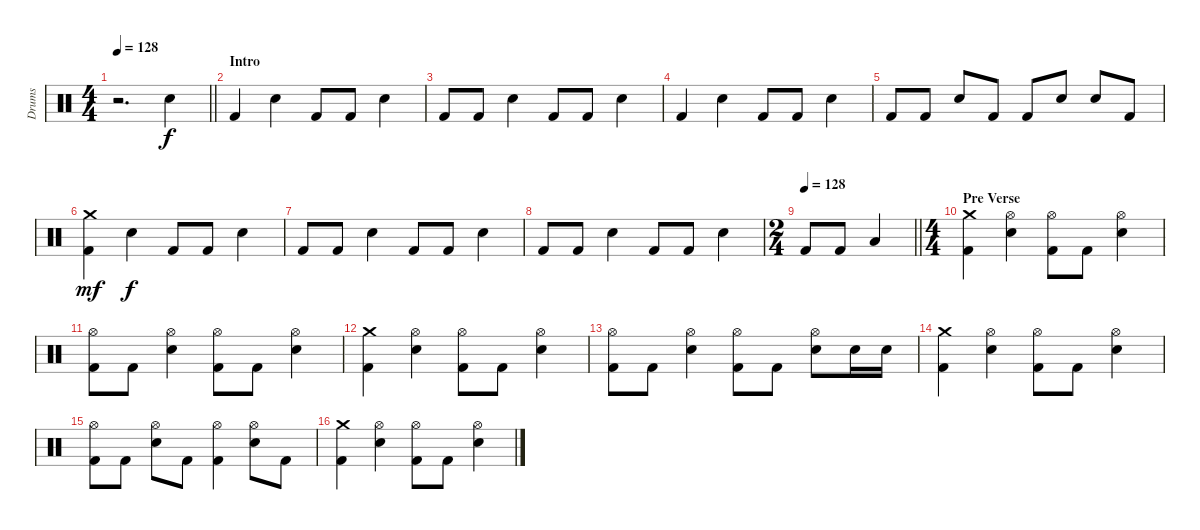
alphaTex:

\track ("Drums" "Drums") {instrument percussion}
\staff {score}
\articulation defaults
\ts (4 4)
\tempo 128
\clef neutral
\barLineRight lightlight
\ks c
r.2{d dy f} "Electric Snare (hit)".4 |
\section ("" "Intro")
"Kick (hit) 2".4 "Electric Snare (hit)".4 "Kick (hit) 2".8 "Kick (hit) 2".8 "Electric Snare (hit)".4 |
"Kick (hit) 2".8 "Kick (hit) 2".8 "Electric Snare (hit)".4 "Kick (hit) 2".8 "Kick (hit) 2".8 "Electric Snare (hit)".4 |
"Kick (hit) 2".4 "Electric Snare (hit)".4 "Kick (hit) 2".8 "Kick (hit) 2".8 "Electric Snare (hit)".4 |
"Kick (hit) 2".8 "Kick (hit) 2".8 "Electric Snare (hit)".8 "Kick (hit) 2".8 "Kick (hit) 2".8 "Electric Snare (hit)".8 "Electric Snare (hit)".8 "Kick (hit) 2".8 |
("Crash medium (hit)" "Kick (hit) 2").4{dy mf} "Electric Snare (hit)".4{dy f} "Kick (hit) 2".8 "Kick (hit) 2".8 "Electric Snare (hit)".4 |
"Kick (hit) 2".8 "Kick (hit) 2".8 "Electric Snare (hit)".4 "Kick (hit) 2".8 "Kick (hit) 2".8 "Electric Snare (hit)".4 |
"Kick (hit) 2".8 "Kick (hit) 2".8 "Electric Snare (hit)".4 "Kick (hit) 2".8 "Kick (hit) 2".8 "Electric Snare (hit)".4 |
\ts (2 4)
\tempo 128
\barLineRight lightlight "Kick (hit) 2".8 "Kick (hit) 2".8 "Low Tom (hit)".4
|
\ts (4 4)
\section ("" "Pre Verse")
("Crash medium (hit)" "Kick (hit) 2").4 ("Hi-Hat (open)" "Electric Snare (hit)").4 ("Hi-Hat (open)" "Kick (hit) 2").8 "Kick (hit) 2".8 ("Hi-Hat (open)" "Electric Snare (hit)").4 |
("Hi-Hat (open)" "Kick (hit) 2").8 "Kick (hit) 2".8 ("Hi-Hat (open)" "Electric Snare (hit)").4 ("Hi-Hat (open)" "Kick (hit) 2").8 "Kick (hit) 2".8 ("Hi-Hat (open)" "Electric Snare (hit)").4 |
("Crash medium (hit)" "Kick (hit) 2").4 ("Hi-Hat (open)" "Electric Snare (hit)").4 ("Hi-Hat (open)" "Kick (hit) 2").8 "Kick (hit) 2".8 ("Hi-Hat (open)" "Electric Snare (hit)").4 |
("Hi-Hat (open)" "Kick (hit) 2").8 "Kick (hit) 2".8 ("Hi-Hat (open)" "Electric Snare (hit)").4 ("Hi-Hat (open)" "Kick (hit) 2").8 "Kick (hit) 2".8 ("Hi-Hat (open)" "Electric Snare (hit)").8 "Electric Snare (hit)".16 "Electric Snare (hit)".16 |
("Crash medium (hit)" "Kick (hit) 2").4 ("Hi-Hat (open)" "Electric Snare (hit)").4 ("Hi-Hat (open)" "Kick (hit) 2").8 "Kick (hit) 2".8 ("Hi-Hat (open)" "Electric Snare (hit)").4 |
("Hi-Hat (open)" "Kick (hit) 2").8 "Kick (hit) 2".8 ("Hi-Hat (open)" "Electric Snare (hit)").8 "Kick (hit) 2".8 ("Hi-Hat (open)" "Kick (hit) 2").4 ("Hi-Hat (open)" "Electric Snare (hit)").8 "Kick (hit) 2".8 |
("Crash medium (hit)" "Kick (hit) 2").4 ("Hi-Hat (open)" "Electric Snare (hit)").4 ("Hi-Hat (open)" "Kick (hit) 2").8 "Kick (hit) 2".8 ("Hi-Hat (open)" "Electric Snare (hit)").4
